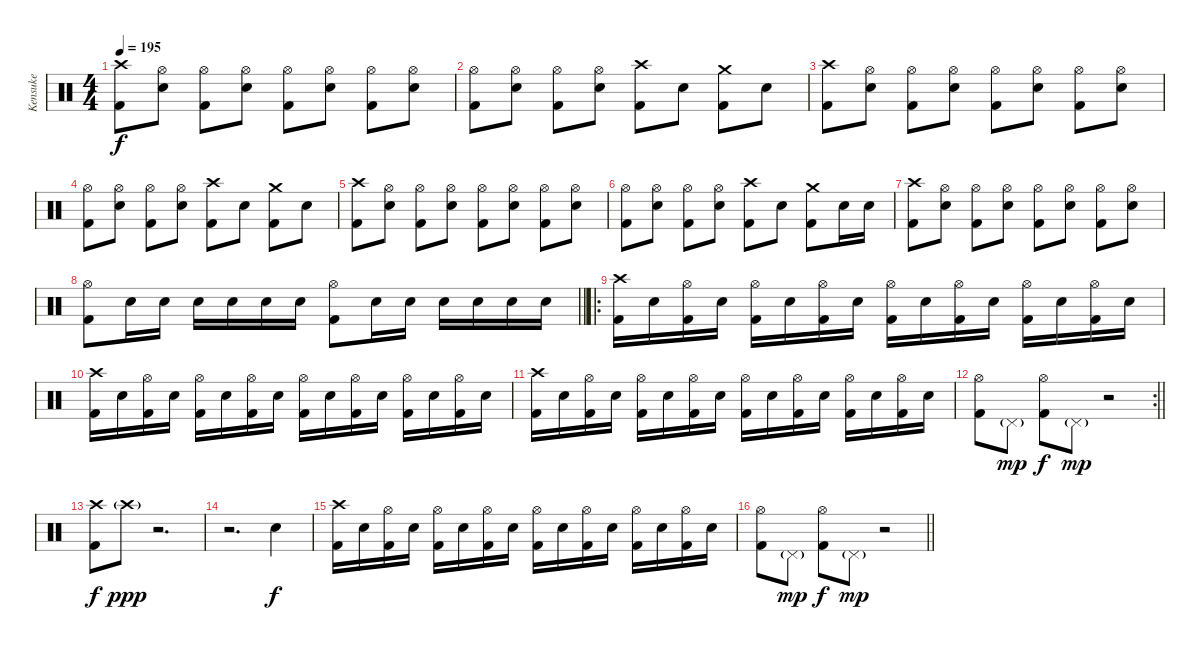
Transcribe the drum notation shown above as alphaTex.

\track ("Kensuke" "Kensuke") {instrument percussion}
\staff {score}
\articulation defaults
\ts (4 4)
\section ("" "")
\tempo 195
\clef neutral
\ks c
("Crash high (hit)" "Kick (hit) 2").8{dy f} ("Hi-Hat (open)" "Electric Snare (hit)").8 ("Hi-Hat (open)" "Kick (hit) 2").8 ("Hi-Hat (open)" "Electric Snare (hit)").8 ("Hi-Hat (open)" "Kick (hit) 2").8 ("Hi-Hat (open)" "Electric Snare (hit)").8 ("Hi-Hat (open)" "Kick (hit) 2").8 ("Hi-Hat (open)" "Electric Snare (hit)").8 |
("Hi-Hat (open)" "Kick (hit) 2").8 ("Hi-Hat (open)" "Electric Snare (hit)").8 ("Hi-Hat (open)" "Kick (hit) 2").8 ("Hi-Hat (open)" "Electric Snare (hit)").8 ("Crash high (hit)" "Kick (hit) 2").8 "Electric Snare (hit)".8 ("Crash medium (hit)" "Kick (hit) 2").8 "Electric Snare (hit)".8 |
("Crash high (hit)" "Kick (hit) 2").8 ("Hi-Hat (open)" "Electric Snare (hit)").8 ("Hi-Hat (open)" "Kick (hit) 2").8 ("Hi-Hat (open)" "Electric Snare (hit)").8 ("Hi-Hat (open)" "Kick (hit) 2").8 ("Hi-Hat (open)" "Electric Snare (hit)").8 ("Hi-Hat (open)" "Kick (hit) 2").8 ("Hi-Hat (open)" "Electric Snare (hit)").8 |
("Hi-Hat (open)" "Kick (hit) 2").8 ("Hi-Hat (open)" "Electric Snare (hit)").8 ("Hi-Hat (open)" "Kick (hit) 2").8 ("Hi-Hat (open)" "Electric Snare (hit)").8 ("Crash high (hit)" "Kick (hit) 2").8 "Electric Snare (hit)".8 ("Crash medium (hit)" "Kick (hit) 2").8 "Electric Snare (hit)".8 |
("Crash high (hit)" "Kick (hit) 2").8 ("Hi-Hat (open)" "Electric Snare (hit)").8 ("Hi-Hat (open)" "Kick (hit) 2").8 ("Hi-Hat (open)" "Electric Snare (hit)").8 ("Hi-Hat (open)" "Kick (hit) 2").8 ("Hi-Hat (open)" "Electric Snare (hit)").8 ("Hi-Hat (open)" "Kick (hit) 2").8 ("Hi-Hat (open)" "Electric Snare (hit)").8 |
("Hi-Hat (open)" "Kick (hit) 2").8 ("Hi-Hat (open)" "Electric Snare (hit)").8 ("Hi-Hat (open)" "Kick (hit) 2").8 ("Hi-Hat (open)" "Electric Snare (hit)").8 ("Crash high (hit)" "Kick (hit) 2").8 "Electric Snare (hit)".8 ("Crash medium (hit)" "Kick (hit) 2").8 "Electric Snare (hit)".16 "Electric Snare (hit)".16 |
("Crash high (hit)" "Kick (hit) 2").8 ("Hi-Hat (open)" "Electric Snare (hit)").8 ("Hi-Hat (open)" "Kick (hit) 2").8 ("Hi-Hat (open)" "Electric Snare (hit)").8 ("Hi-Hat (open)" "Kick (hit) 2").8 ("Hi-Hat (open)" "Electric Snare (hit)").8 ("Hi-Hat (open)" "Kick (hit) 2").8 ("Hi-Hat (open)" "Electric Snare (hit)").8 |
\barLineRight lightlight
("Hi-Hat (open)" "Kick (hit) 2").8 "Electric Snare (hit)".16 "Electric Snare (hit)".16 "Electric Snare (hit)".16 "Electric Snare (hit)".16 "Electric Snare (hit)".16 "Electric Snare (hit)".16 ("Hi-Hat (open)" "Kick (hit) 2").8 "Electric Snare (hit)".16 "Electric Snare (hit)".16 "Electric Snare (hit)".16 "Electric Snare (hit)".16 "Electric Snare (hit)".16 "Electric Snare (hit)".16 |
\ro
\section ("" "")
("Crash high (hit)" "Kick (hit) 2").16 "Electric Snare (hit)".16 ("Hi-Hat (open)" "Kick (hit) 2").16 "Electric Snare (hit)".16 ("Hi-Hat (open)" "Kick (hit) 2").16 "Electric Snare (hit)".16 ("Hi-Hat (open)" "Kick (hit) 2").16 "Electric Snare (hit)".16 ("Hi-Hat (open)" "Kick (hit) 2").16 "Electric Snare (hit)".16 ("Hi-Hat (open)" "Kick (hit) 2").16 "Electric Snare (hit)".16 ("Hi-Hat (open)" "Kick (hit) 2").16 "Electric Snare (hit)".16 ("Hi-Hat (open)" "Kick (hit) 2").16 "Electric Snare (hit)".16 |
("Crash high (hit)" "Kick (hit) 2").16 "Electric Snare (hit)".16 ("Hi-Hat (open)" "Kick (hit) 2").16 "Electric Snare (hit)".16 ("Hi-Hat (open)" "Kick (hit) 2").16 "Electric Snare (hit)".16 ("Hi-Hat (open)" "Kick (hit) 2").16 "Electric Snare (hit)".16 ("Hi-Hat (open)" "Kick (hit) 2").16 "Electric Snare (hit)".16 ("Hi-Hat (open)" "Kick (hit) 2").16 "Electric Snare (hit)".16 ("Hi-Hat (open)" "Kick (hit) 2").16 "Electric Snare (hit)".16 ("Hi-Hat (open)" "Kick (hit) 2").16 "Electric Snare (hit)".16 |
("Crash high (hit)" "Kick (hit) 2").16 "Electric Snare (hit)".16 ("Hi-Hat (open)" "Kick (hit) 2").16 "Electric Snare (hit)".16 ("Hi-Hat (open)" "Kick (hit) 2").16 "Electric Snare (hit)".16 ("Hi-Hat (open)" "Kick (hit) 2").16 "Electric Snare (hit)".16 ("Hi-Hat (open)" "Kick (hit) 2").16 "Electric Snare (hit)".16 ("Hi-Hat (open)" "Kick (hit) 2").16 "Electric Snare (hit)".16 ("Hi-Hat (open)" "Kick (hit) 2").16 "Electric Snare (hit)".16 ("Hi-Hat (open)" "Kick (hit) 2").16 "Electric Snare (hit)".16 |
\rc 2
\barLineRight lightlight
("Hi-Hat (open)" "Kick (hit) 2").8 "Pedal Hi-Hat (hit)"{g}.8{dy mp} ("Hi-Hat (open)" "Kick (hit) 2").8{dy f} "Pedal Hi-Hat (hit)"{g}.8{dy mp} r.2 |
\section ("" "")
("Crash high (hit)" "Kick (hit) 2").8{dy f} "Crash high (hit)"{g}.8{dy ppp} r.2{d} |
r.2{d} "Electric Snare (hit)".4{dy f} |
("Crash high (hit)" "Kick (hit) 2").16 "Electric Snare (hit)".16 ("Hi-Hat (open)" "Kick (hit) 2").16 "Electric Snare (hit)".16 ("Hi-Hat (open)" "Kick (hit) 2").16 "Electric Snare (hit)".16 ("Hi-Hat (open)" "Kick (hit) 2").16 "Electric Snare (hit)".16 ("Hi-Hat (open)" "Kick (hit) 2").16 "Electric Snare (hit)".16 ("Hi-Hat (open)" "Kick (hit) 2").16 "Electric Snare (hit)".16 ("Hi-Hat (open)" "Kick (hit) 2").16 "Electric Snare (hit)".16 ("Hi-Hat (open)" "Kick (hit) 2").16 "Electric Snare (hit)".16 |
\barLineRight lightlight
("Hi-Hat (open)" "Kick (hit) 2").8 "Pedal Hi-Hat (hit)"{g}.8{dy mp} ("Hi-Hat (open)" "Kick (hit) 2").8{dy f} "Pedal Hi-Hat (hit)"{g}.8{dy mp} r.2
